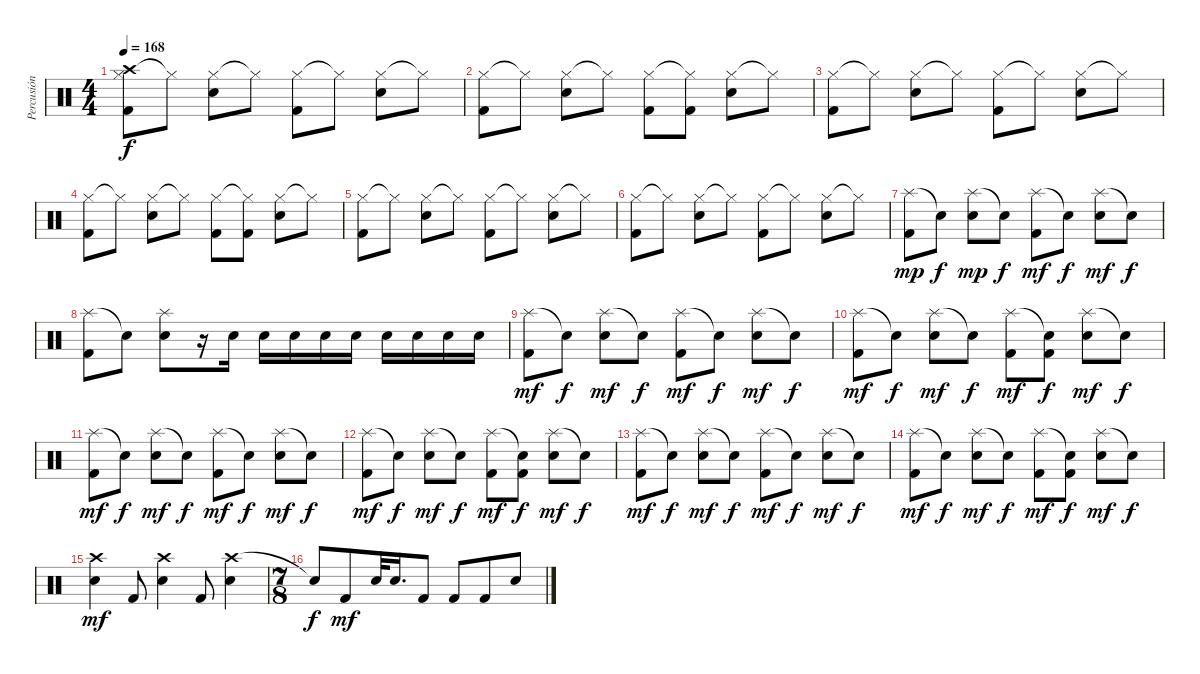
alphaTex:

\track ("Percusión" "Percusión") {instrument percussion}
\staff {score}
\articulation defaults
\ts (4 4)
\tempo 168
\clef neutral
\ks c
("Crash high (hit)" "Hi-Hat (closed)" "Kick (hit) 2").8{dy f} "Hi-Hat (closed)"{t}.8 ("Hi-Hat (closed)" "Snare (hit) 2").8 "Hi-Hat (closed)"{t}.8 ("Hi-Hat (closed)" "Kick (hit) 2").8 "Hi-Hat (closed)"{t}.8 ("Hi-Hat (closed)" "Snare (hit) 2").8 "Hi-Hat (closed)"{t}.8 |
("Hi-Hat (closed)" "Kick (hit) 2").8 "Hi-Hat (closed)"{t}.8 ("Hi-Hat (closed)" "Snare (hit) 2").8 "Hi-Hat (closed)"{t}.8 ("Hi-Hat (closed)" "Kick (hit) 2").8 ("Hi-Hat (closed)"{t} "Kick (hit) 2").8 ("Hi-Hat (closed)" "Snare (hit) 2").8 "Hi-Hat (closed)"{t}.8 |
("Hi-Hat (closed)" "Kick (hit) 2").8 "Hi-Hat (closed)"{t}.8 ("Hi-Hat (closed)" "Snare (hit) 2").8 "Hi-Hat (closed)"{t}.8 ("Hi-Hat (closed)" "Kick (hit) 2").8 "Hi-Hat (closed)"{t}.8 ("Hi-Hat (closed)" "Snare (hit) 2").8 "Hi-Hat (closed)"{t}.8 |
("Hi-Hat (closed)" "Kick (hit) 2").8 "Hi-Hat (closed)"{t}.8 ("Hi-Hat (closed)" "Snare (hit) 2").8 "Hi-Hat (closed)"{t}.8 ("Hi-Hat (closed)" "Kick (hit) 2").8 ("Hi-Hat (closed)"{t} "Kick (hit) 2").8 ("Hi-Hat (closed)" "Snare (hit) 2").8 "Hi-Hat (closed)"{t}.8 |
("Hi-Hat (closed)" "Kick (hit) 2").8 "Hi-Hat (closed)"{t}.8 ("Hi-Hat (closed)" "Snare (hit) 2").8 "Hi-Hat (closed)"{t}.8 ("Hi-Hat (closed)" "Kick (hit) 2").8 "Hi-Hat (closed)"{t}.8 ("Hi-Hat (closed)" "Snare (hit) 2").8 "Hi-Hat (closed)"{t}.8 |
("Hi-Hat (closed)" "Kick (hit) 2").8 "Hi-Hat (closed)"{t}.8 ("Hi-Hat (closed)" "Snare (hit) 2").8 "Hi-Hat (closed)"{t}.8 ("Hi-Hat (closed)" "Kick (hit) 2").8 "Hi-Hat (closed)"{t}.8 ("Hi-Hat (closed)" "Snare (hit) 2").8 "Hi-Hat (closed)"{t}.8 |
("Splash (hit)" "Kick (hit) 2").8{dy mp} "Snare (hit)"{t}.8{dy f} ("Splash (hit)" "Snare (hit) 2").8{dy mp} "Snare (hit)"{t}.8{dy f} ("Splash (hit)" "Kick (hit) 2").8{dy mf} "Snare (hit)"{t}.8{dy f} ("Splash (hit)" "Snare (hit) 2").8{dy mf} "Snare (hit)"{t}.8{dy f} |
("Splash (hit)" "Kick (hit) 2").8 "Snare (hit)"{t}.8 ("Splash (hit)" "Snare (hit) 2").8 r.16 "Snare (hit) 2".16 "Snare (hit) 2".16 "Snare (hit) 2".16 "Snare (hit) 2".16 "Snare (hit) 2".16 "Snare (hit) 2".16 "Snare (hit) 2".16 "Snare (hit) 2".16 "Snare (hit) 2".16 |
("Splash (hit)" "Kick (hit) 2").8{dy mf} "Snare (hit)"{t}.8{dy f} ("Splash (hit)" "Snare (hit) 2").8{dy mf} "Snare (hit)"{t}.8{dy f} ("Splash (hit)" "Kick (hit) 2").8{dy mf} "Snare (hit)"{t}.8{dy f} ("Splash (hit)" "Snare (hit) 2").8{dy mf} "Snare (hit)"{t}.8{dy f} |
("Splash (hit)" "Kick (hit) 2").8{dy mf} "Snare (hit)"{t}.8{dy f} ("Splash (hit)" "Snare (hit) 2").8{dy mf} "Snare (hit)"{t}.8{dy f} ("Splash (hit)" "Kick (hit) 2").8{dy mf} ("Snare (hit)"{t} "Kick (hit) 2").8{dy f} ("Splash (hit)" "Snare (hit) 2").8{dy mf} "Snare (hit)"{t}.8{dy f} |
("Splash (hit)" "Kick (hit) 2").8{dy mf} "Snare (hit)"{t}.8{dy f} ("Splash (hit)" "Snare (hit) 2").8{dy mf} "Snare (hit)"{t}.8{dy f} ("Splash (hit)" "Kick (hit) 2").8{dy mf} "Snare (hit)"{t}.8{dy f} ("Splash (hit)" "Snare (hit) 2").8{dy mf} "Snare (hit)"{t}.8{dy f} |
("Splash (hit)" "Kick (hit) 2").8{dy mf} "Snare (hit)"{t}.8{dy f} ("Splash (hit)" "Snare (hit) 2").8{dy mf} "Snare (hit)"{t}.8{dy f} ("Splash (hit)" "Kick (hit) 2").8{dy mf} ("Snare (hit)"{t} "Kick (hit) 2").8{dy f} ("Splash (hit)" "Snare (hit) 2").8{dy mf} "Snare (hit)"{t}.8{dy f} |
("Splash (hit)" "Kick (hit) 2").8{dy mf} "Snare (hit)"{t}.8{dy f} ("Splash (hit)" "Snare (hit) 2").8{dy mf} "Snare (hit)"{t}.8{dy f} ("Splash (hit)" "Kick (hit) 2").8{dy mf} "Snare (hit)"{t}.8{dy f} ("Splash (hit)" "Snare (hit) 2").8{dy mf} "Snare (hit)"{t}.8{dy f} |
("Splash (hit)" "Kick (hit) 2").8{dy mf} "Snare (hit)"{t}.8{dy f} ("Splash (hit)" "Snare (hit) 2").8{dy mf} "Snare (hit)"{t}.8{dy f} ("Splash (hit)" "Kick (hit) 2").8{dy mf} ("Snare (hit)"{t} "Kick (hit) 2").8{dy f} ("Splash (hit)" "Snare (hit) 2").8{dy mf} "Snare (hit)"{t}.8{dy f} |
("Crash high (hit)" "Snare (hit) 2").4{dy mf} "Kick (hit) 2".8 ("Crash high (hit)" "Snare (hit) 2").4 "Kick (hit) 2".8 ("Crash high (hit)" "Snare (hit) 2").4 |
\ts (7 8)
"Snare (hit)"{t}.8{dy f} "Kick (hit) 2".8{dy mf} "Snare (hit) 2".32 "Snare (hit) 2".16{d} "Kick (hit) 2".8 "Kick (hit) 2".8 "Kick (hit) 2".8 "Snare (hit) 2".8
